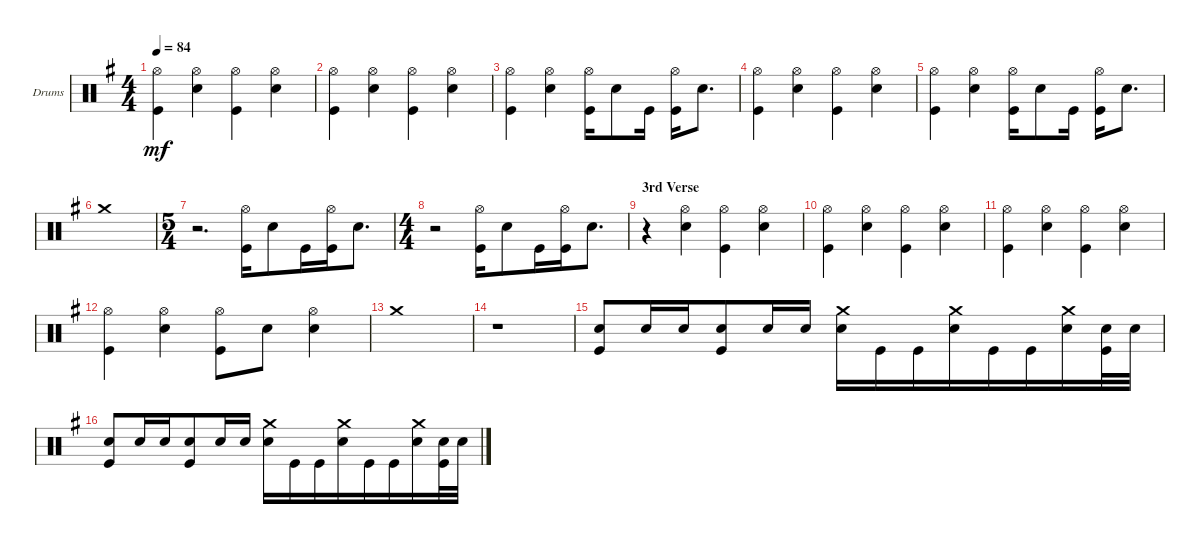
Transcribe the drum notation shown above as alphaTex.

\bracketExtendMode groupsimilarinstruments
\firstSystemTrackNameOrientation horizontal
\otherSystemsTrackNameOrientation horizontal
\track ("Drumkit" "Drums") {instrument percussion}
\staff {score}
\articulation defaults
\ts (4 4)
\tempo 84
\clef neutral
\scale
1.04288
\ks g
("Hi-Hat (open)" "Kick (hit)").4{dy mf} ("Hi-Hat (open)" "Snare (hit) 2").4 ("Hi-Hat (open)" "Kick (hit)").4 ("Hi-Hat (open)" "Snare (hit) 2").4 |
\scale
0.957125 ("Hi-Hat (open)" "Kick (hit)").4 ("Hi-Hat (open)" "Snare (hit) 2").4 ("Hi-Hat (open)" "Kick (hit)").4 ("Hi-Hat (open)" "Snare (hit) 2").4 |
\scale
1.04288 ("Hi-Hat (open)" "Kick (hit)").4 ("Hi-Hat (open)" "Snare (hit) 2").4 ("Hi-Hat (open)" "Kick (hit)").16 "Snare (hit) 2".8 "Kick (hit)".16 ("Hi-Hat (open)" "Kick (hit)").16 "Snare (hit) 2".8{d} |
\scale
0.957125 ("Hi-Hat (open)" "Kick (hit)").4 ("Hi-Hat (open)" "Snare (hit) 2").4 ("Hi-Hat (open)" "Kick (hit)").4 ("Hi-Hat (open)" "Snare (hit) 2").4 |
\scale
1.04288 ("Hi-Hat (open)" "Kick (hit)").4 ("Hi-Hat (open)" "Snare (hit) 2").4 ("Hi-Hat (open)" "Kick (hit)").16 "Snare (hit) 2".8 "Kick (hit)".16 ("Hi-Hat (open)" "Kick (hit)").16 "Snare (hit) 2".8{d} |
\scale
0.957125 "Crash medium (hit)".1 |
\ts (5 4)
\beaming (8 4 6)
\scale
1.07314 r.2{d} ("Hi-Hat (open)" "Kick (hit)").16 "Snare (hit) 2".8 "Kick (hit)".16 ("Hi-Hat (open)" "Kick (hit)").16 "Snare (hit) 2".8{d} |
\ts (4 4)
\beaming (8 4 6)
\scale
0.92686 r.2 ("Hi-Hat (open)" "Kick (hit)").16 "Snare (hit) 2".8 "Kick (hit)".16 ("Hi-Hat (open)" "Kick (hit)").16 "Snare (hit) 2".8{d} |
\section ("" "3rd Verse")
\scale
1.04288 r.4 ("Hi-Hat (open)" "Snare (hit) 2").4 ("Hi-Hat (open)" "Kick (hit)").4 ("Hi-Hat (open)" "Snare (hit) 2").4 |
\scale
0.957125 ("Hi-Hat (open)" "Kick (hit)").4 ("Hi-Hat (open)" "Snare (hit) 2").4 ("Hi-Hat (open)" "Kick (hit)").4 ("Hi-Hat (open)" "Snare (hit) 2").4 |
\scale
1.04288 ("Hi-Hat (open)" "Kick (hit)").4 ("Hi-Hat (open)" "Snare (hit) 2").4 ("Hi-Hat (open)" "Kick (hit)").4 ("Hi-Hat (open)" "Snare (hit) 2").4 |
\scale
0.957125 ("Hi-Hat (open)" "Kick (hit)").4 ("Hi-Hat (open)" "Snare (hit) 2").4 ("Hi-Hat (open)" "Kick (hit)").8 "Snare (hit) 2".8 ("Hi-Hat (open)" "Snare (hit) 2").4 |
\scale
1.04288 "Crash medium (hit)".1 |
\scale
0.957125 r.1 |
\scale
1.04288 ("Snare (hit) 2" "Kick (hit)").8 "Snare (hit) 2".16 "Snare (hit) 2".16 ("Snare (hit) 2" "Kick (hit)").8 "Snare (hit) 2".16 "Snare (hit) 2".16 ("Crash medium (hit)" "Snare (hit) 2").16 "Kick (hit)".16 "Kick (hit)".16 ("Crash medium (hit)" "Snare (hit) 2").16 "Kick (hit)".16 "Kick (hit)".16 ("Crash medium (hit)" "Snare (hit) 2").16 ("Snare (hit) 2" "Kick (hit)").32 "Snare (hit) 2".32 |
\scale
0.957125 ("Snare (hit) 2" "Kick (hit)").8 "Snare (hit) 2".16 "Snare (hit) 2".16 ("Snare (hit) 2" "Kick (hit)").8 "Snare (hit) 2".16 "Snare (hit) 2".16 ("Crash medium (hit)" "Snare (hit) 2").16 "Kick (hit)".16 "Kick (hit)".16 ("Crash medium (hit)" "Snare (hit) 2").16 "Kick (hit)".16 "Kick (hit)".16 ("Crash medium (hit)" "Snare (hit) 2").16 ("Snare (hit) 2" "Kick (hit)").32 "Snare (hit) 2".32
